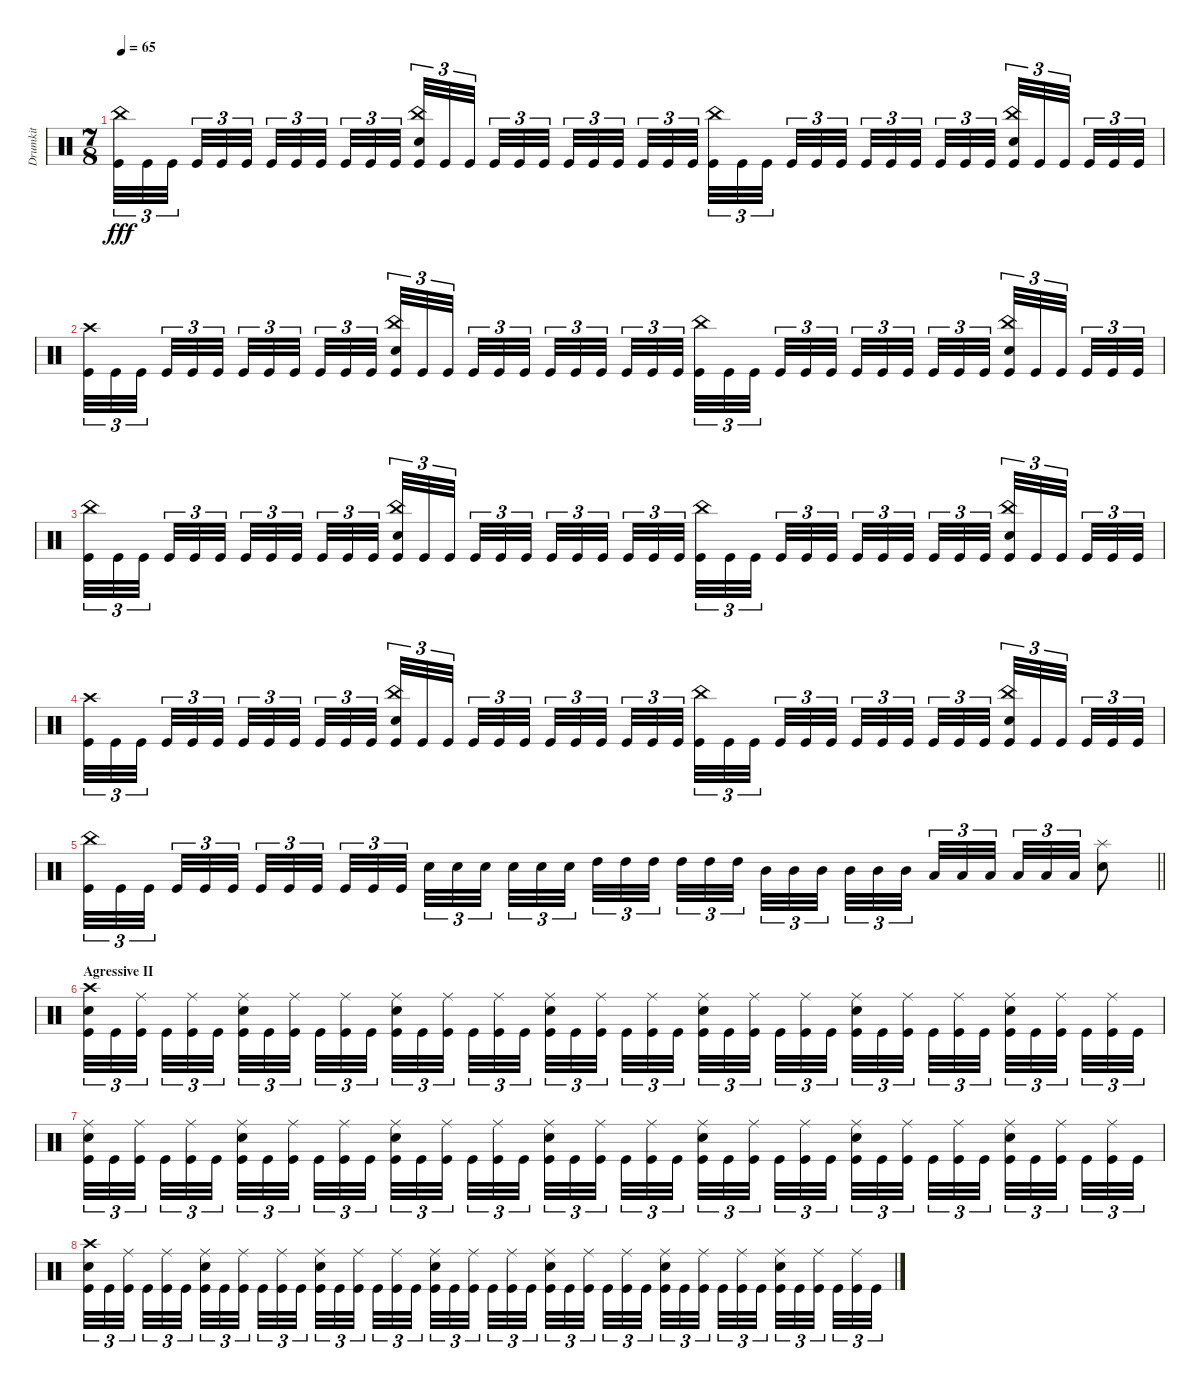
\track ("Drumkit" "Drumkit") {instrument percussion}
\staff {score}
\articulation defaults
\ts (7 8)
\tempo 65
\clef neutral
\ks c
("Kick (hit)" "China (hit)").32{tu (3 2) dy fff} "Kick (hit)".32{tu (3 2)} "Kick (hit)".32{tu (3 2) beam splitsecondary} "Kick (hit)".32{tu (3 2)} "Kick (hit)".32{tu (3 2)} "Kick (hit)".32{tu (3 2)} "Kick (hit)".32{tu (3 2)} "Kick (hit)".32{tu (3 2)} "Kick (hit)".32{tu (3 2) beam splitsecondary} "Kick (hit)".32{tu (3 2)} "Kick (hit)".32{tu (3 2)} "Kick (hit)".32{tu (3 2)} ("Kick (hit)" "Snare (hit) 2" "China (hit)").32{tu (3 2)} "Kick (hit)".32{tu (3 2)} "Kick (hit)".32{tu (3 2) beam splitsecondary} "Kick (hit)".32{tu (3 2)} "Kick (hit)".32{tu (3 2)} "Kick (hit)".32{tu (3 2)} "Kick (hit)".32{tu (3 2)} "Kick (hit)".32{tu (3 2)} "Kick (hit)".32{tu (3 2) beam splitsecondary} "Kick (hit)".32{tu (3 2)} "Kick (hit)".32{tu (3 2)} "Kick (hit)".32{tu (3 2)} ("Kick (hit)" "China (hit)").32{tu (3 2)} "Kick (hit)".32{tu (3 2)} "Kick (hit)".32{tu (3 2) beam splitsecondary} "Kick (hit)".32{tu (3 2)} "Kick (hit)".32{tu (3 2)} "Kick (hit)".32{tu (3 2)} "Kick (hit)".32{tu (3 2)} "Kick (hit)".32{tu (3 2)} "Kick (hit)".32{tu (3 2) beam splitsecondary} "Kick (hit)".32{tu (3 2)} "Kick (hit)".32{tu (3 2)} "Kick (hit)".32{tu (3 2)} ("Kick (hit)" "Snare (hit) 2" "China (hit)").32{tu (3 2)} "Kick (hit)".32{tu (3 2)} "Kick (hit)".32{tu (3 2) beam splitsecondary} "Kick (hit)".32{tu (3 2)} "Kick (hit)".32{tu (3 2)} "Kick (hit)".32{tu (3 2)} |
("Kick (hit)" "Crash high (hit)").32{tu (3 2)} "Kick (hit)".32{tu (3 2)} "Kick (hit)".32{tu (3 2) beam splitsecondary} "Kick (hit)".32{tu (3 2)} "Kick (hit)".32{tu (3 2)} "Kick (hit)".32{tu (3 2)} "Kick (hit)".32{tu (3 2)} "Kick (hit)".32{tu (3 2)} "Kick (hit)".32{tu (3 2) beam splitsecondary} "Kick (hit)".32{tu (3 2)} "Kick (hit)".32{tu (3 2)} "Kick (hit)".32{tu (3 2)} ("Kick (hit)" "Snare (hit) 2" "China (hit)").32{tu (3 2)} "Kick (hit)".32{tu (3 2)} "Kick (hit)".32{tu (3 2) beam splitsecondary} "Kick (hit)".32{tu (3 2)} "Kick (hit)".32{tu (3 2)} "Kick (hit)".32{tu (3 2)} "Kick (hit)".32{tu (3 2)} "Kick (hit)".32{tu (3 2)} "Kick (hit)".32{tu (3 2) beam splitsecondary} "Kick (hit)".32{tu (3 2)} "Kick (hit)".32{tu (3 2)} "Kick (hit)".32{tu (3 2)} ("Kick (hit)" "China (hit)").32{tu (3 2)} "Kick (hit)".32{tu (3 2)} "Kick (hit)".32{tu (3 2) beam splitsecondary} "Kick (hit)".32{tu (3 2)} "Kick (hit)".32{tu (3 2)} "Kick (hit)".32{tu (3 2)} "Kick (hit)".32{tu (3 2)} "Kick (hit)".32{tu (3 2)} "Kick (hit)".32{tu (3 2) beam splitsecondary} "Kick (hit)".32{tu (3 2)} "Kick (hit)".32{tu (3 2)} "Kick (hit)".32{tu (3 2)} ("Kick (hit)" "Snare (hit) 2" "China (hit)").32{tu (3 2)} "Kick (hit)".32{tu (3 2)} "Kick (hit)".32{tu (3 2) beam splitsecondary} "Kick (hit)".32{tu (3 2)} "Kick (hit)".32{tu (3 2)} "Kick (hit)".32{tu (3 2)} |
("Kick (hit)" "China (hit)").32{tu (3 2)} "Kick (hit)".32{tu (3 2)} "Kick (hit)".32{tu (3 2) beam splitsecondary} "Kick (hit)".32{tu (3 2)} "Kick (hit)".32{tu (3 2)} "Kick (hit)".32{tu (3 2)} "Kick (hit)".32{tu (3 2)} "Kick (hit)".32{tu (3 2)} "Kick (hit)".32{tu (3 2) beam splitsecondary} "Kick (hit)".32{tu (3 2)} "Kick (hit)".32{tu (3 2)} "Kick (hit)".32{tu (3 2)} ("Kick (hit)" "Snare (hit) 2" "China (hit)").32{tu (3 2)} "Kick (hit)".32{tu (3 2)} "Kick (hit)".32{tu (3 2) beam splitsecondary} "Kick (hit)".32{tu (3 2)} "Kick (hit)".32{tu (3 2)} "Kick (hit)".32{tu (3 2)} "Kick (hit)".32{tu (3 2)} "Kick (hit)".32{tu (3 2)} "Kick (hit)".32{tu (3 2) beam splitsecondary} "Kick (hit)".32{tu (3 2)} "Kick (hit)".32{tu (3 2)} "Kick (hit)".32{tu (3 2)} ("Kick (hit)" "China (hit)").32{tu (3 2)} "Kick (hit)".32{tu (3 2)} "Kick (hit)".32{tu (3 2) beam splitsecondary} "Kick (hit)".32{tu (3 2)} "Kick (hit)".32{tu (3 2)} "Kick (hit)".32{tu (3 2)} "Kick (hit)".32{tu (3 2)} "Kick (hit)".32{tu (3 2)} "Kick (hit)".32{tu (3 2) beam splitsecondary} "Kick (hit)".32{tu (3 2)} "Kick (hit)".32{tu (3 2)} "Kick (hit)".32{tu (3 2)} ("Kick (hit)" "Snare (hit) 2" "China (hit)").32{tu (3 2)} "Kick (hit)".32{tu (3 2)} "Kick (hit)".32{tu (3 2) beam splitsecondary} "Kick (hit)".32{tu (3 2)} "Kick (hit)".32{tu (3 2)} "Kick (hit)".32{tu (3 2)} |
("Kick (hit)" "Crash high (hit)").32{tu (3 2)} "Kick (hit)".32{tu (3 2)} "Kick (hit)".32{tu (3 2) beam splitsecondary} "Kick (hit)".32{tu (3 2)} "Kick (hit)".32{tu (3 2)} "Kick (hit)".32{tu (3 2)} "Kick (hit)".32{tu (3 2)} "Kick (hit)".32{tu (3 2)} "Kick (hit)".32{tu (3 2) beam splitsecondary} "Kick (hit)".32{tu (3 2)} "Kick (hit)".32{tu (3 2)} "Kick (hit)".32{tu (3 2)} ("Kick (hit)" "Snare (hit) 2" "China (hit)").32{tu (3 2)} "Kick (hit)".32{tu (3 2)} "Kick (hit)".32{tu (3 2) beam splitsecondary} "Kick (hit)".32{tu (3 2)} "Kick (hit)".32{tu (3 2)} "Kick (hit)".32{tu (3 2)} "Kick (hit)".32{tu (3 2)} "Kick (hit)".32{tu (3 2)} "Kick (hit)".32{tu (3 2) beam splitsecondary} "Kick (hit)".32{tu (3 2)} "Kick (hit)".32{tu (3 2)} "Kick (hit)".32{tu (3 2)} ("Kick (hit)" "China (hit)").32{tu (3 2)} "Kick (hit)".32{tu (3 2)} "Kick (hit)".32{tu (3 2) beam splitsecondary} "Kick (hit)".32{tu (3 2)} "Kick (hit)".32{tu (3 2)} "Kick (hit)".32{tu (3 2)} "Kick (hit)".32{tu (3 2)} "Kick (hit)".32{tu (3 2)} "Kick (hit)".32{tu (3 2) beam splitsecondary} "Kick (hit)".32{tu (3 2)} "Kick (hit)".32{tu (3 2)} "Kick (hit)".32{tu (3 2)} ("Kick (hit)" "Snare (hit) 2" "China (hit)").32{tu (3 2)} "Kick (hit)".32{tu (3 2)} "Kick (hit)".32{tu (3 2) beam splitsecondary} "Kick (hit)".32{tu (3 2)} "Kick (hit)".32{tu (3 2)} "Kick (hit)".32{tu (3 2)} |
\barLineRight lightlight
("Kick (hit)" "China (hit)").32{tu (3 2)} "Kick (hit)".32{tu (3 2)} "Kick (hit)".32{tu (3 2) beam splitsecondary} "Kick (hit)".32{tu (3 2)} "Kick (hit)".32{tu (3 2)} "Kick (hit)".32{tu (3 2)} "Kick (hit)".32{tu (3 2)} "Kick (hit)".32{tu (3 2)} "Kick (hit)".32{tu (3 2) beam splitsecondary} "Kick (hit)".32{tu (3 2)} "Kick (hit)".32{tu (3 2)} "Kick (hit)".32{tu (3 2)} "Snare (hit) 2".32{tu (3 2)} "Snare (hit) 2".32{tu (3 2)} "Snare (hit) 2".32{tu (3 2) beam splitsecondary} "Snare (hit) 2".32{tu (3 2)} "Snare (hit) 2".32{tu (3 2)} "Snare (hit) 2".32{tu (3 2)} "High Tom (hit)".32{tu (3 2)} "High Tom (hit)".32{tu (3 2)} "High Tom (hit)".32{tu (3 2) beam splitsecondary} "High Tom (hit)".32{tu (3 2)} "High Tom (hit)".32{tu (3 2)} "High Tom (hit)".32{tu (3 2)} "Mid Tom (hit)".32{tu (3 2)} "Mid Tom (hit)".32{tu (3 2)} "Mid Tom (hit)".32{tu (3 2) beam splitsecondary} "Mid Tom (hit)".32{tu (3 2)} "Mid Tom (hit)".32{tu (3 2)} "Mid Tom (hit)".32{tu (3 2)} "Low Tom (hit)".32{tu (3 2)} "Low Tom (hit)".32{tu (3 2)} "Low Tom (hit)".32{tu (3 2) beam splitsecondary} "Low Tom (hit)".32{tu (3 2)} "Low Tom (hit)".32{tu (3 2)} "Low Tom (hit)".32{tu (3 2)} ("Snare (hit) 2" "Splash (hit)").8 |
\section ("" "Agressive II")
("Kick (hit)" "Snare (hit) 2" "Crash high (hit)").32{tu (3 2)} "Kick (hit)".32{tu (3 2)} ("Kick (hit)" "Ride (middle)").32{tu (3 2) beam splitsecondary} "Kick (hit)".32{tu (3 2)} ("Kick (hit)" "Ride (middle)").32{tu (3 2)} "Kick (hit)".32{tu (3 2)} ("Kick (hit)" "Snare (hit) 2" "Ride (middle)").32{tu (3 2)} "Kick (hit)".32{tu (3 2)} ("Kick (hit)" "Ride (middle)").32{tu (3 2) beam splitsecondary} "Kick (hit)".32{tu (3 2)} ("Kick (hit)" "Ride (middle)").32{tu (3 2)} "Kick (hit)".32{tu (3 2)} ("Kick (hit)" "Snare (hit) 2" "Ride (middle)").32{tu (3 2)} "Kick (hit)".32{tu (3 2)} ("Kick (hit)" "Ride (middle)").32{tu (3 2) beam splitsecondary} "Kick (hit)".32{tu (3 2)} ("Kick (hit)" "Ride (middle)").32{tu (3 2)} "Kick (hit)".32{tu (3 2)} ("Kick (hit)" "Snare (hit) 2" "Ride (middle)").32{tu (3 2)} "Kick (hit)".32{tu (3 2)} ("Kick (hit)" "Ride (middle)").32{tu (3 2) beam splitsecondary} "Kick (hit)".32{tu (3 2)} ("Kick (hit)" "Ride (middle)").32{tu (3 2)} "Kick (hit)".32{tu (3 2)} ("Kick (hit)" "Snare (hit) 2" "Ride (middle)").32{tu (3 2)} "Kick (hit)".32{tu (3 2)} ("Kick (hit)" "Ride (middle)").32{tu (3 2) beam splitsecondary} "Kick (hit)".32{tu (3 2)} ("Kick (hit)" "Ride (middle)").32{tu (3 2)} "Kick (hit)".32{tu (3 2)} ("Kick (hit)" "Snare (hit) 2" "Ride (middle)").32{tu (3 2)} "Kick (hit)".32{tu (3 2)} ("Kick (hit)" "Ride (middle)").32{tu (3 2) beam splitsecondary} "Kick (hit)".32{tu (3 2)} ("Kick (hit)" "Ride (middle)").32{tu (3 2)} "Kick (hit)".32{tu (3 2)} ("Kick (hit)" "Snare (hit) 2" "Ride (middle)").32{tu (3 2)} "Kick (hit)".32{tu (3 2)} ("Kick (hit)" "Ride (middle)").32{tu (3 2) beam splitsecondary} "Kick (hit)".32{tu (3 2)} ("Kick (hit)" "Ride (middle)").32{tu (3 2)} "Kick (hit)".32{tu (3 2)} |
("Kick (hit)" "Snare (hit) 2" "Ride (middle)").32{tu (3 2)} "Kick (hit)".32{tu (3 2)} ("Kick (hit)" "Ride (middle)").32{tu (3 2) beam splitsecondary} "Kick (hit)".32{tu (3 2)} ("Kick (hit)" "Ride (middle)").32{tu (3 2)} "Kick (hit)".32{tu (3 2)} ("Kick (hit)" "Snare (hit) 2" "Ride (middle)").32{tu (3 2)} "Kick (hit)".32{tu (3 2)} ("Kick (hit)" "Ride (middle)").32{tu (3 2) beam splitsecondary} "Kick (hit)".32{tu (3 2)} ("Kick (hit)" "Ride (middle)").32{tu (3 2)} "Kick (hit)".32{tu (3 2)} ("Kick (hit)" "Snare (hit) 2" "Ride (middle)").32{tu (3 2)} "Kick (hit)".32{tu (3 2)} ("Kick (hit)" "Ride (middle)").32{tu (3 2) beam splitsecondary} "Kick (hit)".32{tu (3 2)} ("Kick (hit)" "Ride (middle)").32{tu (3 2)} "Kick (hit)".32{tu (3 2)} ("Kick (hit)" "Snare (hit) 2" "Ride (middle)").32{tu (3 2)} "Kick (hit)".32{tu (3 2)} ("Kick (hit)" "Ride (middle)").32{tu (3 2) beam splitsecondary} "Kick (hit)".32{tu (3 2)} ("Kick (hit)" "Ride (middle)").32{tu (3 2)} "Kick (hit)".32{tu (3 2)} ("Kick (hit)" "Snare (hit) 2" "Ride (middle)").32{tu (3 2)} "Kick (hit)".32{tu (3 2)} ("Kick (hit)" "Ride (middle)").32{tu (3 2) beam splitsecondary} "Kick (hit)".32{tu (3 2)} ("Kick (hit)" "Ride (middle)").32{tu (3 2)} "Kick (hit)".32{tu (3 2)} ("Kick (hit)" "Snare (hit) 2" "Ride (middle)").32{tu (3 2)} "Kick (hit)".32{tu (3 2)} ("Kick (hit)" "Ride (middle)").32{tu (3 2) beam splitsecondary} "Kick (hit)".32{tu (3 2)} ("Kick (hit)" "Ride (middle)").32{tu (3 2)} "Kick (hit)".32{tu (3 2)} ("Kick (hit)" "Snare (hit) 2" "Ride (middle)").32{tu (3 2)} "Kick (hit)".32{tu (3 2)} ("Kick (hit)" "Ride (middle)").32{tu (3 2) beam splitsecondary} "Kick (hit)".32{tu (3 2)} ("Kick (hit)" "Ride (middle)").32{tu (3 2)} "Kick (hit)".32{tu (3 2)} |
("Kick (hit)" "Snare (hit) 2" "Crash high (hit)").32{tu (3 2)} "Kick (hit)".32{tu (3 2)} ("Kick (hit)" "Ride (middle)").32{tu (3 2) beam splitsecondary} "Kick (hit)".32{tu (3 2)} ("Kick (hit)" "Ride (middle)").32{tu (3 2)} "Kick (hit)".32{tu (3 2)} ("Kick (hit)" "Snare (hit) 2" "Ride (middle)").32{tu (3 2)} "Kick (hit)".32{tu (3 2)} ("Kick (hit)" "Ride (middle)").32{tu (3 2) beam splitsecondary} "Kick (hit)".32{tu (3 2)} ("Kick (hit)" "Ride (middle)").32{tu (3 2)} "Kick (hit)".32{tu (3 2)} ("Kick (hit)" "Snare (hit) 2" "Ride (middle)").32{tu (3 2)} "Kick (hit)".32{tu (3 2)} ("Kick (hit)" "Ride (middle)").32{tu (3 2) beam splitsecondary} "Kick (hit)".32{tu (3 2)} ("Kick (hit)" "Ride (middle)").32{tu (3 2)} "Kick (hit)".32{tu (3 2)} ("Kick (hit)" "Snare (hit) 2" "Ride (middle)").32{tu (3 2)} "Kick (hit)".32{tu (3 2)} ("Kick (hit)" "Ride (middle)").32{tu (3 2) beam splitsecondary} "Kick (hit)".32{tu (3 2)} ("Kick (hit)" "Ride (middle)").32{tu (3 2)} "Kick (hit)".32{tu (3 2)} ("Kick (hit)" "Snare (hit) 2" "Ride (middle)").32{tu (3 2)} "Kick (hit)".32{tu (3 2)} ("Kick (hit)" "Ride (middle)").32{tu (3 2) beam splitsecondary} "Kick (hit)".32{tu (3 2)} ("Kick (hit)" "Ride (middle)").32{tu (3 2)} "Kick (hit)".32{tu (3 2)} ("Kick (hit)" "Snare (hit) 2" "Ride (middle)").32{tu (3 2)} "Kick (hit)".32{tu (3 2)} ("Kick (hit)" "Ride (middle)").32{tu (3 2) beam splitsecondary} "Kick (hit)".32{tu (3 2)} ("Kick (hit)" "Ride (middle)").32{tu (3 2)} "Kick (hit)".32{tu (3 2)} ("Kick (hit)" "Snare (hit) 2" "Ride (middle)").32{tu (3 2)} "Kick (hit)".32{tu (3 2)} ("Kick (hit)" "Ride (middle)").32{tu (3 2) beam splitsecondary} "Kick (hit)".32{tu (3 2)} ("Kick (hit)" "Ride (middle)").32{tu (3 2)} "Kick (hit)".32{tu (3 2)}
